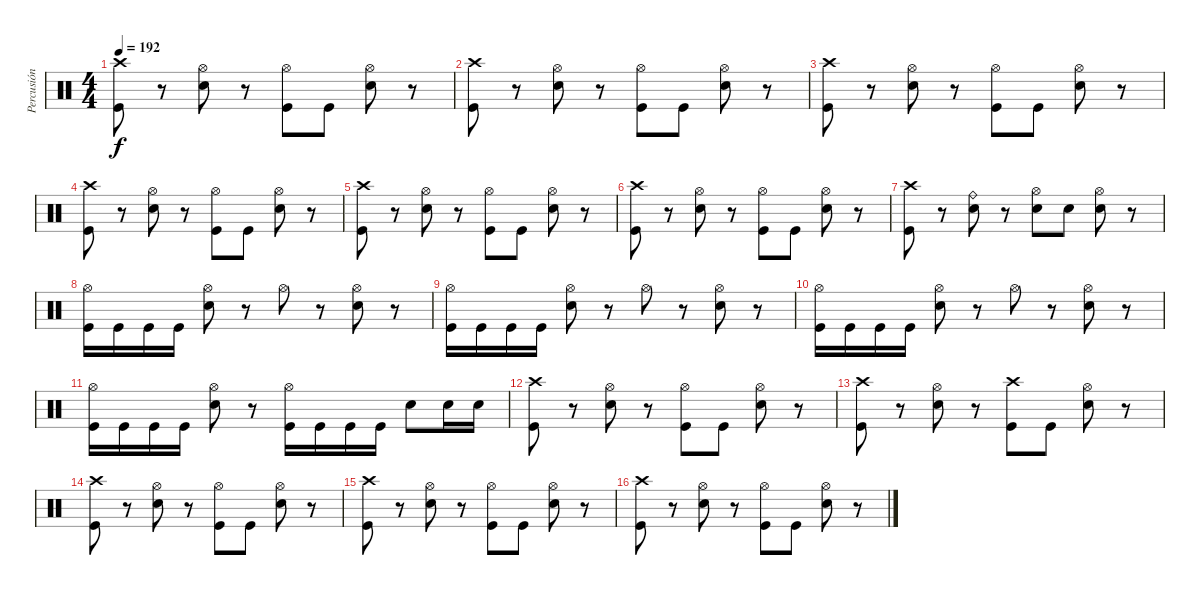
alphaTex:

\track ("Percusión" "Percusión") {instrument percussion}
\staff {score}
\articulation defaults
\ts (4 4)
\tempo 192
\clef neutral
\ks c
("Kick (hit)" "Crash high (hit)").8{dy f} r.8 ("Electric Snare (hit)" "Hi-Hat (open)").8 r.8 ("Kick (hit)" "Hi-Hat (open)").8 "Kick (hit)".8 ("Electric Snare (hit)" "Hi-Hat (open)").8 r.8 |
("Kick (hit)" "Crash high (hit)").8 r.8 ("Electric Snare (hit)" "Hi-Hat (open)").8 r.8 ("Kick (hit)" "Hi-Hat (open)").8 "Kick (hit)".8 ("Electric Snare (hit)" "Hi-Hat (open)").8 r.8 |
("Kick (hit)" "Crash high (hit)").8 r.8 ("Electric Snare (hit)" "Hi-Hat (open)").8 r.8 ("Kick (hit)" "Hi-Hat (open)").8 "Kick (hit)".8 ("Electric Snare (hit)" "Hi-Hat (open)").8 r.8 |
("Kick (hit)" "Crash high (hit)").8 r.8 ("Electric Snare (hit)" "Hi-Hat (open)").8 r.8 ("Kick (hit)" "Hi-Hat (open)").8 "Kick (hit)".8 ("Electric Snare (hit)" "Hi-Hat (open)").8 r.8 |
("Kick (hit)" "Crash high (hit)").8 r.8 ("Electric Snare (hit)" "Hi-Hat (open)").8 r.8 ("Kick (hit)" "Hi-Hat (open)").8 "Kick (hit)".8 ("Electric Snare (hit)" "Hi-Hat (open)").8 r.8 |
("Kick (hit)" "Crash high (hit)").8 r.8 ("Electric Snare (hit)" "Hi-Hat (open)").8 r.8 ("Kick (hit)" "Hi-Hat (open)").8 "Kick (hit)".8 ("Electric Snare (hit)" "Hi-Hat (open)").8 r.8 |
("Kick (hit)" "Crash high (hit)").8 r.8 ("Electric Snare (hit)" "Ride (bell)").8 r.8 ("Electric Snare (hit)" "Hi-Hat (open)").8 "Electric Snare (hit)".8 ("Electric Snare (hit)" "Hi-Hat (open)").8 r.8 |
("Kick (hit)" "Hi-Hat (open)").16 "Kick (hit)".16 "Kick (hit)".16 "Kick (hit)".16 ("Electric Snare (hit)" "Hi-Hat (open)").8 r.8 "Hi-Hat (open)".8 r.8 ("Electric Snare (hit)" "Hi-Hat (open)").8 r.8 |
("Kick (hit)" "Hi-Hat (open)").16 "Kick (hit)".16 "Kick (hit)".16 "Kick (hit)".16 ("Electric Snare (hit)" "Hi-Hat (open)").8 r.8 "Hi-Hat (open)".8 r.8 ("Electric Snare (hit)" "Hi-Hat (open)").8 r.8 |
("Kick (hit)" "Hi-Hat (open)").16 "Kick (hit)".16 "Kick (hit)".16 "Kick (hit)".16 ("Electric Snare (hit)" "Hi-Hat (open)").8 r.8 "Hi-Hat (open)".8 r.8 ("Electric Snare (hit)" "Hi-Hat (open)").8 r.8 |
("Kick (hit)" "Hi-Hat (open)").16 "Kick (hit)".16 "Kick (hit)".16 "Kick (hit)".16 ("Electric Snare (hit)" "Hi-Hat (open)").8 r.8 ("Kick (hit)" "Hi-Hat (open)").16 "Kick (hit)".16 "Kick (hit)".16 "Kick (hit)".16 "Electric Snare (hit)".8 "Electric Snare (hit)".16 "Electric Snare (hit)".16 |
("Kick (hit)" "Crash high (hit)").8 r.8 ("Electric Snare (hit)" "Hi-Hat (open)").8 r.8 ("Kick (hit)" "Hi-Hat (open)").8 "Kick (hit)".8 ("Electric Snare (hit)" "Hi-Hat (open)").8 r.8 |
("Kick (hit)" "Crash high (hit)").8 r.8 ("Electric Snare (hit)" "Hi-Hat (open)").8 r.8 ("Kick (hit)" "Crash high (hit)").8 "Kick (hit)".8 ("Electric Snare (hit)" "Hi-Hat (open)").8 r.8 |
("Kick (hit)" "Crash high (hit)").8 r.8 ("Electric Snare (hit)" "Hi-Hat (open)").8 r.8 ("Kick (hit)" "Hi-Hat (open)").8 "Kick (hit)".8 ("Electric Snare (hit)" "Hi-Hat (open)").8 r.8 |
("Kick (hit)" "Crash high (hit)").8 r.8 ("Electric Snare (hit)" "Hi-Hat (open)").8 r.8 ("Kick (hit)" "Hi-Hat (open)").8 "Kick (hit)".8 ("Electric Snare (hit)" "Hi-Hat (open)").8 r.8 |
("Kick (hit)" "Crash high (hit)").8 r.8 ("Electric Snare (hit)" "Hi-Hat (open)").8 r.8 ("Kick (hit)" "Hi-Hat (open)").8 "Kick (hit)".8 ("Electric Snare (hit)" "Hi-Hat (open)").8 r.8
